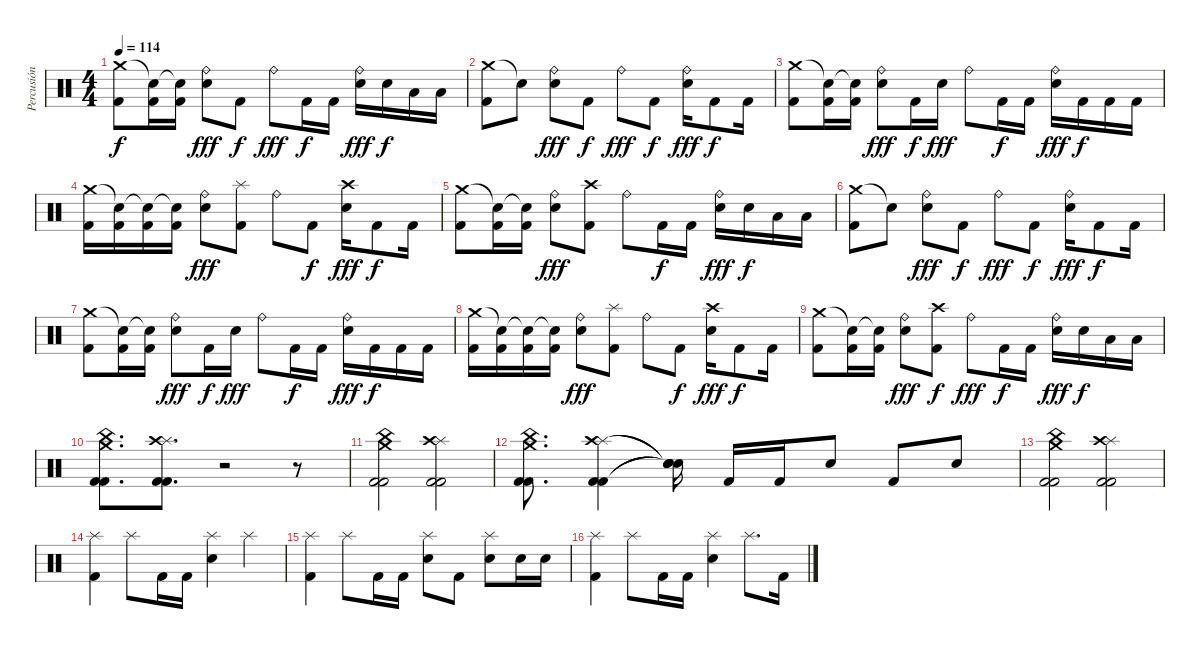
\track ("Percusión" "Percusión") {instrument percussion}
\staff {score}
\articulation defaults
\ts (4 4)
\tempo 114
\clef neutral
\ks c
("Crash medium (hit)" "Kick (hit) 2").8{dy f} ("Snare (hit)"{t} "Kick (hit) 2").16 ("Snare (hit)"{t} "Kick (hit) 2").16 ("Ride (bell)" "Snare (hit) 2").8{dy fff} "Kick (hit) 2".8{dy f} "Ride (bell)".8{dy fff} "Kick (hit) 2".16{dy f} "Kick (hit) 2".16 ("Ride (bell)" "Snare (hit) 2").16{dy fff} "Snare (hit) 2".16{dy f} "Low Floor Tom (hit)".16 "Low Floor Tom (hit)".16 |
("Crash medium (hit)" "Kick (hit) 2").8 "Snare (hit)"{t}.8 ("Ride (bell)" "Snare (hit) 2").8{dy fff} "Kick (hit) 2".8{dy f} "Ride (bell)".8{dy fff} "Kick (hit) 2".8{dy f} ("Ride (bell)" "Snare (hit) 2").16{dy fff} "Kick (hit) 2".8{dy f} "Kick (hit) 2".16 |
("Crash medium (hit)" "Kick (hit) 2").8 ("Snare (hit)"{t} "Kick (hit) 2").16 ("Snare (hit)"{t} "Kick (hit) 2").16 ("Ride (bell)" "Snare (hit) 2").8{dy fff} "Kick (hit) 2".16{dy f} "Snare (hit) 2".16{dy fff} "Ride (bell)".8 "Kick (hit) 2".16{dy f} "Kick (hit) 2".16 ("Ride (bell)" "Snare (hit) 2").16{dy fff} "Kick (hit) 2".16{dy f} "Kick (hit) 2".16 "Kick (hit) 2".16 |
("Crash medium (hit)" "Kick (hit) 2").16 ("Snare (hit)"{t} "Kick (hit) 2").16 ("Snare (hit)"{t} "Kick (hit) 2").16 ("Snare (hit)"{t} "Kick (hit) 2").16 ("Ride (bell)" "Snare (hit) 2").8{dy fff} ("Splash (hit)" "Kick (hit) 2").8 "Ride (bell)".8 "Kick (hit) 2".8{dy f} ("Crash high (hit)" "Snare (hit) 2").16{dy fff} "Kick (hit) 2".8{dy f} "Kick (hit) 2".16 |
("Crash medium (hit)" "Kick (hit) 2").8 ("Snare (hit)"{t} "Kick (hit) 2").16 ("Snare (hit)"{t} "Kick (hit) 2").16 ("Ride (bell)" "Snare (hit) 2").8{dy fff} ("Crash high (hit)" "Kick (hit) 2").8 "Ride (bell)".8 "Kick (hit) 2".16{dy f} "Kick (hit) 2".16 ("Ride (bell)" "Snare (hit) 2").16{dy fff} "Snare (hit) 2".16{dy f} "Low Floor Tom (hit)".16 "Low Floor Tom (hit)".16 |
("Crash medium (hit)" "Kick (hit) 2").8 "Snare (hit)"{t}.8 ("Ride (bell)" "Snare (hit) 2").8{dy fff} "Kick (hit) 2".8{dy f} "Ride (bell)".8{dy fff} "Kick (hit) 2".8{dy f} ("Ride (bell)" "Snare (hit) 2").16{dy fff} "Kick (hit) 2".8{dy f} "Kick (hit) 2".16 |
("Crash medium (hit)" "Kick (hit) 2").8 ("Snare (hit)"{t} "Kick (hit) 2").16 ("Snare (hit)"{t} "Kick (hit) 2").16 ("Ride (bell)" "Snare (hit) 2").8{dy fff} "Kick (hit) 2".16{dy f} "Snare (hit) 2".16{dy fff} "Ride (bell)".8 "Kick (hit) 2".16{dy f} "Kick (hit) 2".16 ("Ride (bell)" "Snare (hit) 2").16{dy fff} "Kick (hit) 2".16{dy f} "Kick (hit) 2".16 "Kick (hit) 2".16 |
("Crash medium (hit)" "Kick (hit) 2").16 ("Snare (hit)"{t} "Kick (hit) 2").16 ("Snare (hit)"{t} "Kick (hit) 2").16 ("Snare (hit)"{t} "Kick (hit) 2").16 ("Ride (bell)" "Snare (hit) 2").8{dy fff} ("Splash (hit)" "Kick (hit) 2").8 "Ride (bell)".8 "Kick (hit) 2".8{dy f} ("Crash high (hit)" "Snare (hit) 2").16{dy fff} "Kick (hit) 2".8{dy f} "Kick (hit) 2".16 |
("Crash medium (hit)" "Kick (hit) 2").8 ("Snare (hit)"{t} "Kick (hit) 2").16 ("Snare (hit)"{t} "Kick (hit) 2").16 ("Ride (bell)" "Snare (hit) 2").8{dy fff} ("Crash high (hit)" "Kick (hit) 2").8{dy f} "Ride (bell)".8{dy fff} "Kick (hit) 2".16{dy f} "Kick (hit) 2".16 ("Ride (bell)" "Snare (hit) 2").16{dy fff} "Snare (hit) 2".16{dy f} "Low Floor Tom (hit)".16 "Low Floor Tom (hit)".16 |
("China (hit)" "Crash medium (hit)" "Kick (hit) 2" "Kick (hit) 2").8{d} ("Splash (hit)" "Crash high (hit)" "Kick (hit) 2" "Kick (hit) 2").8{d} r.2 r.8 |
("China (hit)" "Crash medium (hit)" "Kick (hit) 2" "Kick (hit) 2").2 ("Splash (hit)" "Crash high (hit)" "Kick (hit) 2" "Kick (hit) 2").2 |
("China (hit)" "Crash medium (hit)" "Kick (hit) 2" "Kick (hit) 2").8{d} ("Splash (hit)" "Crash high (hit)" "Kick (hit) 2" "Kick (hit) 2").4 ("Snare (hit)"{t} "Snare (hit)"{t} "Snare (hit)"{t} "Snare (hit)"{t}).16 "Kick (hit) 2".16 "Kick (hit) 2".16 "Electric Snare (hit)".8 "Kick (hit) 2".8 "Electric Snare (hit)".8 |
("China (hit)" "Crash medium (hit)" "Kick (hit) 2" "Kick (hit) 2").2 ("Splash (hit)" "Crash high (hit)" "Kick (hit) 2" "Kick (hit) 2").2 |
("Splash (hit)" "Kick (hit) 2").4 "Splash (hit)".8 "Kick (hit) 2".16 "Kick (hit) 2".16 ("Splash (hit)" "Electric Snare (hit)").4 "Splash (hit)".4 |
("Splash (hit)" "Kick (hit) 2").4 "Splash (hit)".8 "Kick (hit) 2".16 "Kick (hit) 2".16 ("Splash (hit)" "Electric Snare (hit)").8 "Kick (hit) 2".8 ("Splash (hit)" "Electric Snare (hit)").8 "Electric Snare (hit)".16 "Electric Snare (hit)".16 |
("Splash (hit)" "Kick (hit) 2").4 "Splash (hit)".8 "Kick (hit) 2".16 "Kick (hit) 2".16 ("Splash (hit)" "Electric Snare (hit)").4 "Splash (hit)".8{d} "Kick (hit) 2".16
